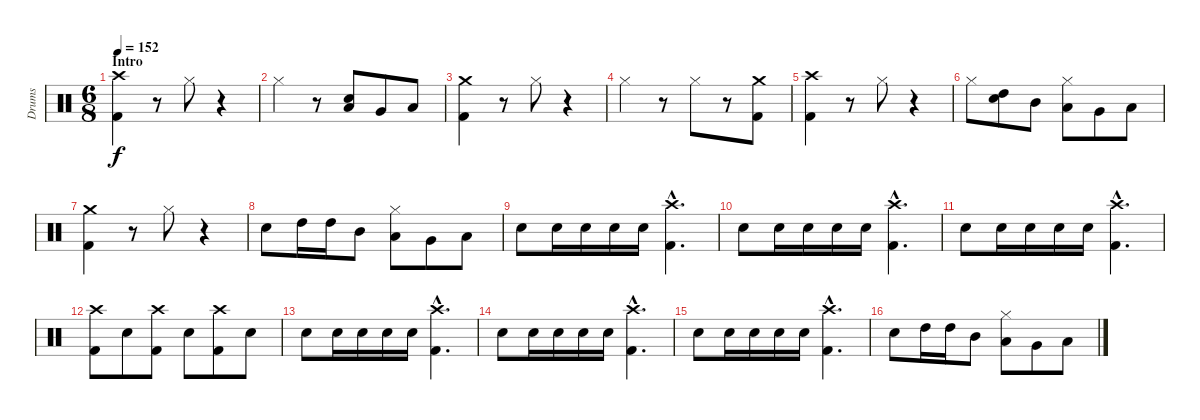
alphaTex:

\track ("Drums" "Drums") {instrument percussion}
\staff {score}
\articulation defaults
\ts (6 8)
\section ("" "Intro")
\tempo 152
\clef neutral
\ks c
("Crash high (hit)" "Kick (hit) 2").4{dy f} r.8 "Hi-Hat (closed)".8 r.4 |
"Hi-Hat (closed)".4 r.8 ("Low Tom (hit)" "Electric Snare (hit)").8 "Very Low Tom (hit)".8 "Low Floor Tom (hit)".8 |
("Crash medium (hit)" "Kick (hit) 2").4 r.8 "Hi-Hat (closed)".8 r.4 |
"Hi-Hat (closed)".4 r.8 "Hi-Hat (closed)".8 r.8 ("Crash medium (hit)" "Kick (hit) 2").8 |
("Crash high (hit)" "Kick (hit) 2").4 r.8 "Hi-Hat (closed)".8 r.4 |
"Hi-Hat (closed)".8 ("High Tom (hit)" "Electric Snare (hit)").8 "Mid Tom (hit)".8 ("Low Tom (hit)" "Hi-Hat (closed)").8 "Very Low Tom (hit)".8 "Low Floor Tom (hit)".8 |
("Crash medium (hit)" "Kick (hit) 2").4 r.8 "Hi-Hat (closed)".8 r.4 |
"Electric Snare (hit)".8 "High Tom (hit)".16 "High Tom (hit)".16 "Mid Tom (hit)".8 ("Low Tom (hit)" "Hi-Hat (closed)").8 "Very Low Tom (hit)".8 "Low Floor Tom (hit)".8 |
"Electric Snare (hit)".8 "Electric Snare (hit)".16 "Electric Snare (hit)".16 "Electric Snare (hit)".16 "Electric Snare (hit)".16 ("Crash high (hit)"{hac} "Kick (hit) 2"{hac}).4{d} |
"Electric Snare (hit)".8 "Electric Snare (hit)".16 "Electric Snare (hit)".16 "Electric Snare (hit)".16 "Electric Snare (hit)".16 ("Crash high (hit)"{hac} "Kick (hit) 2"{hac}).4{d} |
"Electric Snare (hit)".8 "Electric Snare (hit)".16 "Electric Snare (hit)".16 "Electric Snare (hit)".16 "Electric Snare (hit)".16 ("Crash high (hit)"{hac} "Kick (hit) 2"{hac}).4{d} |
("Crash high (hit)" "Kick (hit) 2").8 "Electric Snare (hit)".8 ("Crash high (hit)" "Kick (hit) 2").8 "Electric Snare (hit)".8 ("Crash high (hit)" "Kick (hit) 2").8 "Electric Snare (hit)".8 |
"Electric Snare (hit)".8 "Electric Snare (hit)".16 "Electric Snare (hit)".16 "Electric Snare (hit)".16 "Electric Snare (hit)".16 ("Crash high (hit)"{hac} "Kick (hit) 2"{hac}).4{d} |
"Electric Snare (hit)".8 "Electric Snare (hit)".16 "Electric Snare (hit)".16 "Electric Snare (hit)".16 "Electric Snare (hit)".16 ("Crash high (hit)"{hac} "Kick (hit) 2"{hac}).4{d} |
"Electric Snare (hit)".8 "Electric Snare (hit)".16 "Electric Snare (hit)".16 "Electric Snare (hit)".16 "Electric Snare (hit)".16 ("Crash high (hit)"{hac} "Kick (hit) 2"{hac}).4{d} |
"Electric Snare (hit)".8 "High Tom (hit)".16 "High Tom (hit)".16 "Mid Tom (hit)".8 ("Low Tom (hit)" "Hi-Hat (closed)").8 "Very Low Tom (hit)".8 "Low Floor Tom (hit)".8
